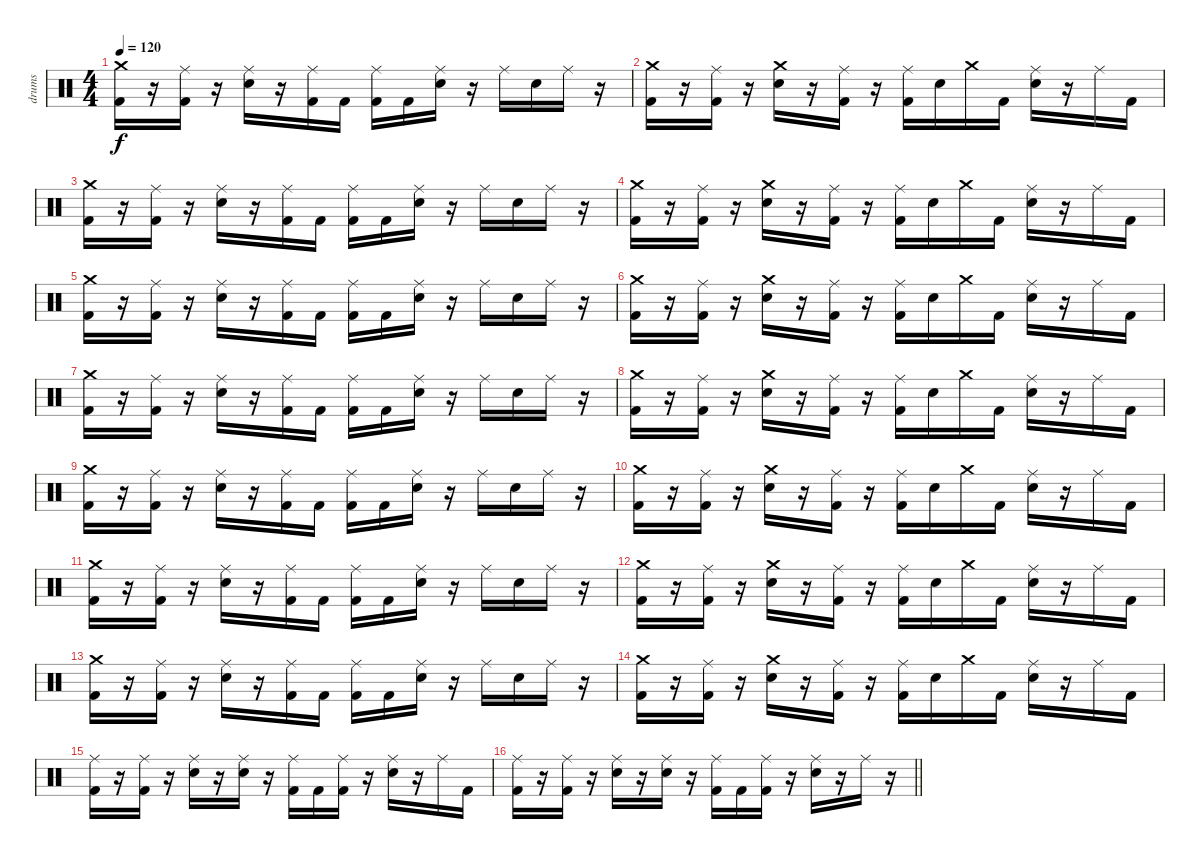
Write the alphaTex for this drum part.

\track ("drums" "drums") {instrument percussion}
\staff {score}
\articulation defaults
\ts (4 4)
\tempo 120
\clef neutral
\ks c
("Crash medium (hit)" "Kick (hit) 2").16{dy f} r.16 ("Ride (middle)" "Kick (hit) 2").16 r.16 ("Ride (middle)" "Snare (hit) 2").16 r.16 ("Ride (middle)" "Kick (hit) 2").16 "Kick (hit) 2".16 ("Ride (middle)" "Kick (hit) 2").16 "Kick (hit) 2".16 ("Ride (middle)" "Snare (hit) 2").16 r.16 "Ride (middle)".16 "Snare (hit) 2".16 "Ride (middle)".16 r.16 |
("Crash medium (hit)" "Kick (hit) 2").16 r.16 ("Ride (middle)" "Kick (hit) 2").16 r.16 ("Crash medium (hit)" "Snare (hit) 2").16 r.16 ("Ride (middle)" "Kick (hit) 2").16 r.16 ("Ride (middle)" "Kick (hit) 2").16 "Snare (hit) 2".16 "Crash medium (hit)".16 "Kick (hit) 2".16 ("Ride (middle)" "Snare (hit) 2").16 r.16 "Ride (middle)".16 "Kick (hit) 2".16 |
("Crash medium (hit)" "Kick (hit) 2").16 r.16 ("Ride (middle)" "Kick (hit) 2").16 r.16 ("Ride (middle)" "Snare (hit) 2").16 r.16 ("Ride (middle)" "Kick (hit) 2").16 "Kick (hit) 2".16 ("Ride (middle)" "Kick (hit) 2").16 "Kick (hit) 2".16 ("Ride (middle)" "Snare (hit) 2").16 r.16 "Ride (middle)".16 "Snare (hit) 2".16 "Ride (middle)".16 r.16 |
("Crash medium (hit)" "Kick (hit) 2").16 r.16 ("Ride (middle)" "Kick (hit) 2").16 r.16 ("Crash medium (hit)" "Snare (hit) 2").16 r.16 ("Ride (middle)" "Kick (hit) 2").16 r.16 ("Ride (middle)" "Kick (hit) 2").16 "Snare (hit) 2".16 "Crash medium (hit)".16 "Kick (hit) 2".16 ("Ride (middle)" "Snare (hit) 2").16 r.16 "Ride (middle)".16 "Kick (hit) 2".16 |
("Crash medium (hit)" "Kick (hit) 2").16 r.16 ("Ride (middle)" "Kick (hit) 2").16 r.16 ("Ride (middle)" "Snare (hit) 2").16 r.16 ("Ride (middle)" "Kick (hit) 2").16 "Kick (hit) 2".16 ("Ride (middle)" "Kick (hit) 2").16 "Kick (hit) 2".16 ("Ride (middle)" "Snare (hit) 2").16 r.16 "Ride (middle)".16 "Snare (hit) 2".16 "Ride (middle)".16 r.16 |
("Crash medium (hit)" "Kick (hit) 2").16 r.16 ("Ride (middle)" "Kick (hit) 2").16 r.16 ("Crash medium (hit)" "Snare (hit) 2").16 r.16 ("Ride (middle)" "Kick (hit) 2").16 r.16 ("Ride (middle)" "Kick (hit) 2").16 "Snare (hit) 2".16 "Crash medium (hit)".16 "Kick (hit) 2".16 ("Ride (middle)" "Snare (hit) 2").16 r.16 "Ride (middle)".16 "Kick (hit) 2".16 |
("Crash medium (hit)" "Kick (hit) 2").16 r.16 ("Ride (middle)" "Kick (hit) 2").16 r.16 ("Ride (middle)" "Snare (hit) 2").16 r.16 ("Ride (middle)" "Kick (hit) 2").16 "Kick (hit) 2".16 ("Ride (middle)" "Kick (hit) 2").16 "Kick (hit) 2".16 ("Ride (middle)" "Snare (hit) 2").16 r.16 "Ride (middle)".16 "Snare (hit) 2".16 "Ride (middle)".16 r.16 |
("Crash medium (hit)" "Kick (hit) 2").16 r.16 ("Ride (middle)" "Kick (hit) 2").16 r.16 ("Crash medium (hit)" "Snare (hit) 2").16 r.16 ("Ride (middle)" "Kick (hit) 2").16 r.16 ("Ride (middle)" "Kick (hit) 2").16 "Snare (hit) 2".16 "Crash medium (hit)".16 "Kick (hit) 2".16 ("Ride (middle)" "Snare (hit) 2").16 r.16 "Ride (middle)".16 "Kick (hit) 2".16 |
("Crash medium (hit)" "Kick (hit) 2").16 r.16 ("Ride (middle)" "Kick (hit) 2").16 r.16 ("Ride (middle)" "Snare (hit) 2").16 r.16 ("Ride (middle)" "Kick (hit) 2").16 "Kick (hit) 2".16 ("Ride (middle)" "Kick (hit) 2").16 "Kick (hit) 2".16 ("Ride (middle)" "Snare (hit) 2").16 r.16 "Ride (middle)".16 "Snare (hit) 2".16 "Ride (middle)".16 r.16 |
("Crash medium (hit)" "Kick (hit) 2").16 r.16 ("Ride (middle)" "Kick (hit) 2").16 r.16 ("Crash medium (hit)" "Snare (hit) 2").16 r.16 ("Ride (middle)" "Kick (hit) 2").16 r.16 ("Ride (middle)" "Kick (hit) 2").16 "Snare (hit) 2".16 "Crash medium (hit)".16 "Kick (hit) 2".16 ("Ride (middle)" "Snare (hit) 2").16 r.16 "Ride (middle)".16 "Kick (hit) 2".16 |
("Crash medium (hit)" "Kick (hit) 2").16 r.16 ("Ride (middle)" "Kick (hit) 2").16 r.16 ("Ride (middle)" "Snare (hit) 2").16 r.16 ("Ride (middle)" "Kick (hit) 2").16 "Kick (hit) 2".16 ("Ride (middle)" "Kick (hit) 2").16 "Kick (hit) 2".16 ("Ride (middle)" "Snare (hit) 2").16 r.16 "Ride (middle)".16 "Snare (hit) 2".16 "Ride (middle)".16 r.16 |
("Crash medium (hit)" "Kick (hit) 2").16 r.16 ("Ride (middle)" "Kick (hit) 2").16 r.16 ("Crash medium (hit)" "Snare (hit) 2").16 r.16 ("Ride (middle)" "Kick (hit) 2").16 r.16 ("Ride (middle)" "Kick (hit) 2").16 "Snare (hit) 2".16 "Crash medium (hit)".16 "Kick (hit) 2".16 ("Ride (middle)" "Snare (hit) 2").16 r.16 "Ride (middle)".16 "Kick (hit) 2".16 |
("Crash medium (hit)" "Kick (hit) 2").16 r.16 ("Ride (middle)" "Kick (hit) 2").16 r.16 ("Ride (middle)" "Snare (hit) 2").16 r.16 ("Ride (middle)" "Kick (hit) 2").16 "Kick (hit) 2".16 ("Ride (middle)" "Kick (hit) 2").16 "Kick (hit) 2".16 ("Ride (middle)" "Snare (hit) 2").16 r.16 "Ride (middle)".16 "Snare (hit) 2".16 "Ride (middle)".16 r.16 |
("Crash medium (hit)" "Kick (hit) 2").16 r.16 ("Ride (middle)" "Kick (hit) 2").16 r.16 ("Crash medium (hit)" "Snare (hit) 2").16 r.16 ("Ride (middle)" "Kick (hit) 2").16 r.16 ("Ride (middle)" "Kick (hit) 2").16 "Snare (hit) 2".16 "Crash medium (hit)".16 "Kick (hit) 2".16 ("Ride (middle)" "Snare (hit) 2").16 r.16 "Ride (middle)".16 "Kick (hit) 2".16 |
("Ride (middle)" "Kick (hit) 2").16 r.16 ("Ride (middle)" "Kick (hit) 2").16 r.16 ("Ride (middle)" "Snare (hit) 2").16 r.16 ("Ride (middle)" "Snare (hit) 2").16 r.16 ("Ride (middle)" "Kick (hit) 2").16 "Kick (hit) 2".16 ("Ride (middle)" "Kick (hit) 2").16 r.16 ("Ride (middle)" "Snare (hit) 2").16 r.16 "Ride (middle)".16 "Kick (hit) 2".16 |
\barLineRight lightlight
("Ride (middle)" "Kick (hit) 2").16 r.16 ("Ride (middle)" "Kick (hit) 2").16 r.16 ("Ride (middle)" "Snare (hit) 2").16 r.16 ("Ride (middle)" "Snare (hit) 2").16 r.16 ("Ride (middle)" "Kick (hit) 2").16 "Kick (hit) 2".16 ("Ride (middle)" "Kick (hit) 2").16 r.16 ("Ride (middle)" "Snare (hit) 2").16 r.16 "Ride (middle)".16 r.16
